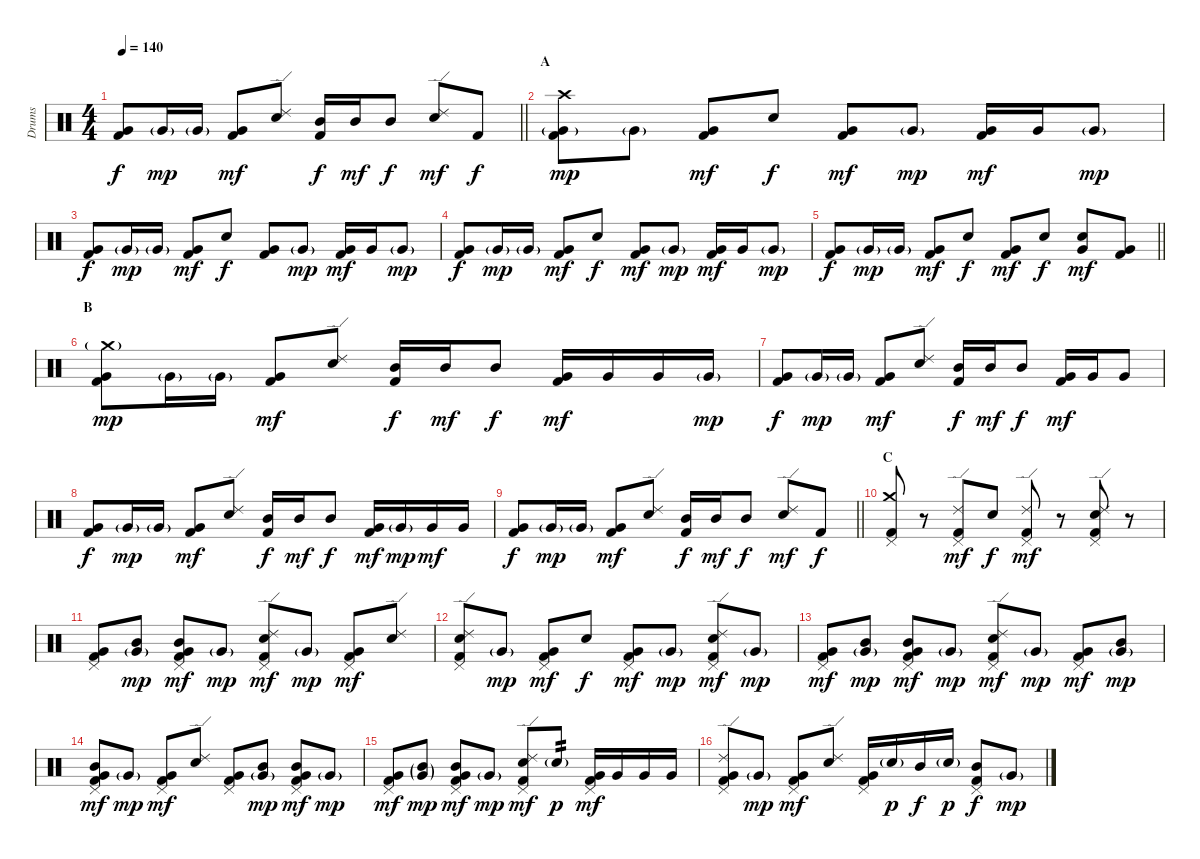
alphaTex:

\track ("Drums" "Drums") {instrument percussion}
\staff {score}
\articulation defaults
\ts (4 4)
\tempo 140
\clef neutral
\barLineRight lightlight
\ks c
("Very Low Tom (hit)" "Kick (hit) 2").8{dy f} "Very Low Tom (hit)"{g}.16{dy mp} "Very Low Tom (hit)"{g}.16 ("Very Low Tom (hit)" "Kick (hit) 2").8{dy mf} ("Ride (edge) 2" "Snare (hit) 2").8 ("Mid Tom (hit)" "Kick (hit) 2").16{dy f} "Mid Tom (hit)".16{dy mf} "Mid Tom (hit)".8{dy f} ("Ride (edge) 2" "Snare (hit) 2").8{dy mf} "Kick (hit) 2".8{dy f} |
\section ("" "A")
("Crash high (hit)" "Very Low Tom (hit)"{g} "Kick (hit) 2").8{dy mp} "Very Low Tom (hit)"{g}.8 ("Very Low Tom (hit)" "Kick (hit) 2").8{dy mf} "Snare (hit) 2".8{dy f} ("Very Low Tom (hit)" "Kick (hit) 2").8{dy mf} "Very Low Tom (hit)"{g}.8{dy mp} ("Very Low Tom (hit)" "Kick (hit) 2").16{dy mf} "Very Low Tom (hit)".16 "Very Low Tom (hit)"{g}.8{dy mp} |
("Very Low Tom (hit)" "Kick (hit) 2").8{dy f} "Very Low Tom (hit)"{g}.16{dy mp} "Very Low Tom (hit)"{g}.16 ("Very Low Tom (hit)" "Kick (hit) 2").8{dy mf} "Snare (hit) 2".8{dy f} ("Very Low Tom (hit)" "Kick (hit) 2").8 "Very Low Tom (hit)"{g}.8{dy mp} ("Very Low Tom (hit)" "Kick (hit) 2").16{dy mf} "Very Low Tom (hit)".16 "Very Low Tom (hit)"{g}.8{dy mp} |
("Very Low Tom (hit)" "Kick (hit) 2").8{dy f} "Very Low Tom (hit)"{g}.16{dy mp} "Very Low Tom (hit)"{g}.16 ("Very Low Tom (hit)" "Kick (hit) 2").8{dy mf} "Snare (hit) 2".8{dy f} ("Very Low Tom (hit)" "Kick (hit) 2").8{dy mf} "Very Low Tom (hit)"{g}.8{dy mp} ("Very Low Tom (hit)" "Kick (hit) 2").16{dy mf} "Very Low Tom (hit)".16 "Very Low Tom (hit)"{g}.8{dy mp} |
\barLineRight lightlight
("Very Low Tom (hit)" "Kick (hit) 2").8{dy f} "Very Low Tom (hit)"{g}.16{dy mp} "Very Low Tom (hit)"{g}.16 ("Very Low Tom (hit)" "Kick (hit) 2").8{dy mf} "Snare (hit) 2".8{dy f} ("Very Low Tom (hit)" "Kick (hit) 2").8{dy mf} "Snare (hit) 2".8{dy f} ("Snare (hit) 2" "Very Low Tom (hit)").8{dy mf} ("Very Low Tom (hit)" "Kick (hit) 2").8 |
\section ("" "B")
("Crash medium (hit)"{g} "Very Low Tom (hit)" "Kick (hit) 2").8{dy mp} "Very Low Tom (hit)"{g}.16 "Very Low Tom (hit)"{g}.16 ("Very Low Tom (hit)" "Kick (hit) 2").8{dy mf} ("Ride (edge) 2" "Snare (hit) 2").8 ("Mid Tom (hit)" "Kick (hit) 2").16{dy f} "Mid Tom (hit)".16{dy mf} "Mid Tom (hit)".8{dy f} ("Very Low Tom (hit)" "Kick (hit) 2").16{dy mf} "Very Low Tom (hit)".16 "Very Low Tom (hit)".16 "Very Low Tom (hit)"{g}.16{dy mp} |
("Very Low Tom (hit)" "Kick (hit) 2").8{dy f} "Very Low Tom (hit)"{g}.16{dy mp} "Very Low Tom (hit)"{g}.16 ("Very Low Tom (hit)" "Kick (hit) 2").8{dy mf} ("Ride (edge) 2" "Snare (hit) 2").8 ("Mid Tom (hit)" "Kick (hit) 2").16{dy f} "Mid Tom (hit)".16{dy mf} "Mid Tom (hit)".8{dy f} ("Very Low Tom (hit)" "Kick (hit) 2").16{dy mf} "Very Low Tom (hit)".16 "Very Low Tom (hit)".8 |
("Very Low Tom (hit)" "Kick (hit) 2").8{dy f} "Very Low Tom (hit)"{g}.16{dy mp} "Very Low Tom (hit)"{g}.16 ("Very Low Tom (hit)" "Kick (hit) 2").8{dy mf} ("Ride (edge) 2" "Snare (hit) 2").8 ("Mid Tom (hit)" "Kick (hit) 2").16{dy f} "Mid Tom (hit)".16{dy mf} "Mid Tom (hit)".8{dy f} ("Very Low Tom (hit)" "Kick (hit) 2").16{dy mf} "Very Low Tom (hit)"{g}.16{dy mp} "Very Low Tom (hit)".16{dy mf} "Very Low Tom (hit)".16 |
\barLineRight lightlight
("Very Low Tom (hit)" "Kick (hit) 2").8{dy f} "Very Low Tom (hit)"{g}.16{dy mp} "Very Low Tom (hit)"{g}.16 ("Very Low Tom (hit)" "Kick (hit) 2").8{dy mf} ("Ride (edge) 2" "Snare (hit) 2").8 ("Mid Tom (hit)" "Kick (hit) 2").16{dy f} "Mid Tom (hit)".16{dy mf} "Mid Tom (hit)".8{dy f} ("Ride (edge) 2" "Snare (hit) 2").8{dy mf} "Kick (hit) 2".8{dy f} |
\section ("" "C")
("Crash medium (hit)" "Pedal Hi-Hat (hit)" "Kick (hit) 2").8 r.8 ("Ride (edge) 2" "Pedal Hi-Hat (hit)" "Kick (hit) 2").8{dy mf} "Snare (hit) 2".8{dy f} ("Ride (edge) 2" "Pedal Hi-Hat (hit)" "Kick (hit) 2").8{dy mf} r.8 ("Ride (edge) 2" "Pedal Hi-Hat (hit)" "Snare (hit) 2" "Kick (hit) 2").8 r.8 |
("Pedal Hi-Hat (hit)" "Very Low Tom (hit)" "Kick (hit) 2").8 ("Mid Tom (hit)" "Very Low Tom (hit)"{g}).8{dy mp} ("Pedal Hi-Hat (hit)" "Mid Tom (hit)" "Very Low Tom (hit)" "Kick (hit) 2").8{dy mf} "Very Low Tom (hit)"{g}.8{dy mp} ("Ride (edge) 2" "Pedal Hi-Hat (hit)" "Snare (hit) 2" "Kick (hit) 2").8{dy mf} "Very Low Tom (hit)"{g}.8{dy mp} ("Pedal Hi-Hat (hit)" "Very Low Tom (hit)" "Kick (hit) 2").8{dy mf} ("Ride (edge) 2" "Snare (hit) 2").8 |
("Ride (edge) 2" "Pedal Hi-Hat (hit)" "Snare (hit) 2" "Kick (hit) 2").8 "Very Low Tom (hit)"{g}.8{dy mp} ("Pedal Hi-Hat (hit)" "Very Low Tom (hit)" "Kick (hit) 2").8{dy mf} "Snare (hit) 2".8{dy f} ("Pedal Hi-Hat (hit)" "Very Low Tom (hit)" "Kick (hit) 2").8{dy mf} "Very Low Tom (hit)"{g}.8{dy mp} ("Ride (edge) 2" "Pedal Hi-Hat (hit)" "Snare (hit) 2" "Kick (hit) 2").8{dy mf} "Very Low Tom (hit)"{g}.8{dy mp} |
("Pedal Hi-Hat (hit)" "Very Low Tom (hit)" "Kick (hit) 2").8{dy mf} ("Mid Tom (hit)" "Very Low Tom (hit)"{g}).8{dy mp} ("Pedal Hi-Hat (hit)" "Mid Tom (hit)" "Very Low Tom (hit)" "Kick (hit) 2").8{dy mf} "Very Low Tom (hit)"{g}.8{dy mp} ("Ride (edge) 2" "Pedal Hi-Hat (hit)" "Snare (hit) 2" "Kick (hit) 2").8{dy mf} "Very Low Tom (hit)"{g}.8{dy mp} ("Pedal Hi-Hat (hit)" "Very Low Tom (hit)" "Kick (hit) 2").8{dy mf} ("Mid Tom (hit)" "Very Low Tom (hit)"{g}).8{dy mp} |
("Pedal Hi-Hat (hit)" "Mid Tom (hit)" "Very Low Tom (hit)" "Kick (hit) 2").8{dy mf} "Very Low Tom (hit)"{g}.8{dy mp} ("Pedal Hi-Hat (hit)" "Very Low Tom (hit)" "Kick (hit) 2").8{dy mf} ("Ride (edge) 2" "Snare (hit) 2").8 ("Pedal Hi-Hat (hit)" "Very Low Tom (hit)" "Kick (hit) 2").8 ("Mid Tom (hit)" "Very Low Tom (hit)"{g}).8{dy mp} ("Pedal Hi-Hat (hit)" "Mid Tom (hit)" "Very Low Tom (hit)" "Kick (hit) 2").8{dy mf} "Very Low Tom (hit)"{g}.8{dy mp} |
("Pedal Hi-Hat (hit)" "Very Low Tom (hit)" "Kick (hit) 2").8{dy mf} ("Mid Tom (hit)"{g} "Very Low Tom (hit)"{g}).8{dy mp} ("Pedal Hi-Hat (hit)" "Mid Tom (hit)" "Very Low Tom (hit)" "Kick (hit) 2").8{dy mf} "Very Low Tom (hit)"{g}.8{dy mp} ("Ride (edge) 2" "Pedal Hi-Hat (hit)" "Snare (hit) 2" "Kick (hit) 2").8{dy mf} "Snare (hit) 2"{g}.8{tp 2 dy p} ("Pedal Hi-Hat (hit)" "Very Low Tom (hit)" "Kick (hit) 2").16{dy mf} "Very Low Tom (hit)".16 "Very Low Tom (hit)".16 "Very Low Tom (hit)".16 |
("Ride (edge) 2" "Pedal Hi-Hat (hit)" "Very Low Tom (hit)" "Kick (hit) 2").8 "Very Low Tom (hit)"{g}.8{dy mp} ("Pedal Hi-Hat (hit)" "Very Low Tom (hit)" "Kick (hit) 2").8{dy mf} ("Ride (edge) 2" "Snare (hit) 2").8 ("Pedal Hi-Hat (hit)" "Very Low Tom (hit)" "Kick (hit) 2").16 "Snare (hit) 2"{g}.16{dy p} "Mid Tom (hit)".16{dy f} "Snare (hit) 2"{g}.16{dy p} ("Pedal Hi-Hat (hit)" "Mid Tom (hit)" "Kick (hit) 2").8{dy f} "Very Low Tom (hit)"{g}.8{dy mp}
